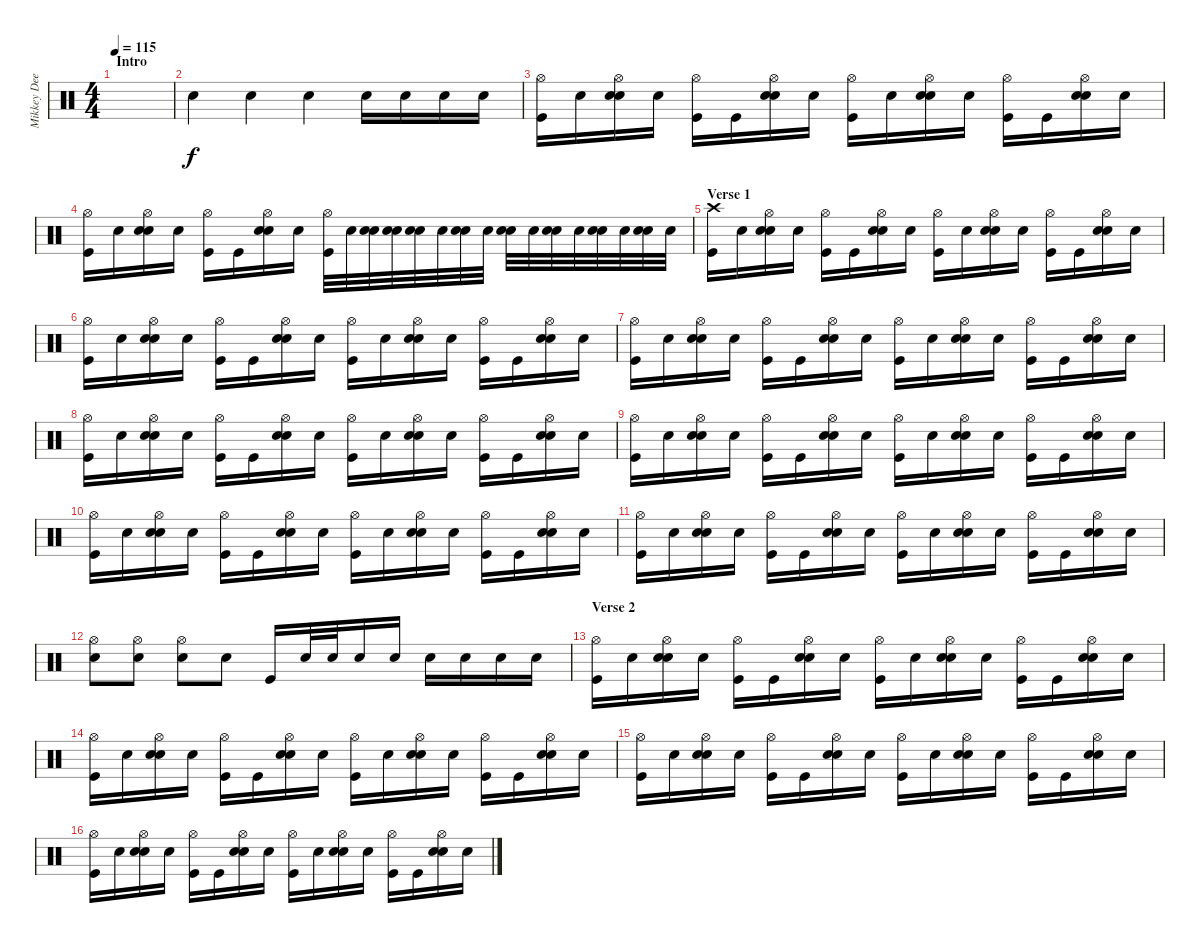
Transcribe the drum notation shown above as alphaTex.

\track ("Mikkey Dee" "Mikkey Dee") {instrument percussion}
\staff {score}
\articulation defaults
\ts (4 4)
\section ("" "Intro")
\tempo 115
\clef neutral
\ks c
|
"Snare (hit)".4 "Snare (hit)".4 "Snare (hit)".4 "Electric Snare (hit)".16 "Electric Snare (hit)".16 "Electric Snare (hit)".16 "Electric Snare (hit)".16 |
("Hi-Hat (open)" "Kick (hit)").16 "Snare (hit)".16 ("Hi-Hat (open)" "Electric Snare (hit)" "Snare (hit)").16 "Snare (hit)".16 ("Hi-Hat (open)" "Kick (hit)").16 "Kick (hit)".16 ("Hi-Hat (open)" "Electric Snare (hit)" "Snare (hit)").16 "Snare (hit)".16 ("Hi-Hat (open)" "Kick (hit)").16 "Snare (hit)".16 ("Hi-Hat (open)" "Electric Snare (hit)" "Snare (hit)").16 "Snare (hit)".16 ("Hi-Hat (open)" "Kick (hit)").16 "Kick (hit)".16 ("Hi-Hat (open)" "Electric Snare (hit)" "Snare (hit)").16 "Snare (hit)".16 |
("Hi-Hat (open)" "Kick (hit)").16 "Snare (hit)".16 ("Hi-Hat (open)" "Electric Snare (hit)" "Snare (hit)").16 "Snare (hit)".16 ("Hi-Hat (open)" "Kick (hit)").16 "Kick (hit)".16 ("Hi-Hat (open)" "Electric Snare (hit)" "Snare (hit)").16 "Snare (hit)".16 ("Hi-Hat (open)" "Kick (hit)").32 "Snare (hit)".32 ("Electric Snare (hit)" "Snare (hit)").32 ("Electric Snare (hit)" "Snare (hit)").32 ("Electric Snare (hit)" "Snare (hit)").32 "Snare (hit)".32 ("Electric Snare (hit)" "Snare (hit)").32 "Snare (hit)".32 ("Electric Snare (hit)" "Snare (hit)").32 "Snare (hit)".32 ("Electric Snare (hit)" "Snare (hit)").32 "Snare (hit)".32 ("Electric Snare (hit)" "Snare (hit)").32 "Snare (hit)".32 ("Electric Snare (hit)" "Snare (hit)").32 "Snare (hit)".32 |
\section ("" "Verse 1")
("Crash high (hit)" "Kick (hit)").16 "Snare (hit)".16 ("Hi-Hat (open)" "Electric Snare (hit)" "Snare (hit)").16 "Snare (hit)".16 ("Hi-Hat (open)" "Kick (hit)").16 "Kick (hit)".16 ("Hi-Hat (open)" "Electric Snare (hit)" "Snare (hit)").16 "Snare (hit)".16 ("Hi-Hat (open)" "Kick (hit)").16 "Snare (hit)".16 ("Hi-Hat (open)" "Electric Snare (hit)" "Snare (hit)").16 "Snare (hit)".16 ("Hi-Hat (open)" "Kick (hit)").16 "Kick (hit)".16 ("Hi-Hat (open)" "Electric Snare (hit)" "Snare (hit)").16 "Snare (hit)".16 |
("Hi-Hat (open)" "Kick (hit)").16 "Snare (hit)".16 ("Hi-Hat (open)" "Electric Snare (hit)" "Snare (hit)").16 "Snare (hit)".16 ("Hi-Hat (open)" "Kick (hit)").16 "Kick (hit)".16 ("Hi-Hat (open)" "Electric Snare (hit)" "Snare (hit)").16 "Snare (hit)".16 ("Hi-Hat (open)" "Kick (hit)").16 "Snare (hit)".16 ("Hi-Hat (open)" "Electric Snare (hit)" "Snare (hit)").16 "Snare (hit)".16 ("Hi-Hat (open)" "Kick (hit)").16 "Kick (hit)".16 ("Hi-Hat (open)" "Electric Snare (hit)" "Snare (hit)").16 "Snare (hit)".16 |
("Hi-Hat (open)" "Kick (hit)").16 "Snare (hit)".16 ("Hi-Hat (open)" "Electric Snare (hit)" "Snare (hit)").16 "Snare (hit)".16 ("Hi-Hat (open)" "Kick (hit)").16 "Kick (hit)".16 ("Hi-Hat (open)" "Electric Snare (hit)" "Snare (hit)").16 "Snare (hit)".16 ("Hi-Hat (open)" "Kick (hit)").16 "Snare (hit)".16 ("Hi-Hat (open)" "Electric Snare (hit)" "Snare (hit)").16 "Snare (hit)".16 ("Hi-Hat (open)" "Kick (hit)").16 "Kick (hit)".16 ("Hi-Hat (open)" "Electric Snare (hit)" "Snare (hit)").16 "Snare (hit)".16 |
("Hi-Hat (open)" "Kick (hit)").16 "Snare (hit)".16 ("Hi-Hat (open)" "Electric Snare (hit)" "Snare (hit)").16 "Snare (hit)".16 ("Hi-Hat (open)" "Kick (hit)").16 "Kick (hit)".16 ("Hi-Hat (open)" "Electric Snare (hit)" "Snare (hit)").16 "Snare (hit)".16 ("Hi-Hat (open)" "Kick (hit)").16 "Snare (hit)".16 ("Hi-Hat (open)" "Electric Snare (hit)" "Snare (hit)").16 "Snare (hit)".16 ("Hi-Hat (open)" "Kick (hit)").16 "Kick (hit)".16 ("Hi-Hat (open)" "Electric Snare (hit)" "Snare (hit)").16 "Snare (hit)".16 |
("Hi-Hat (open)" "Kick (hit)").16 "Snare (hit)".16 ("Hi-Hat (open)" "Electric Snare (hit)" "Snare (hit)").16 "Snare (hit)".16 ("Hi-Hat (open)" "Kick (hit)").16 "Kick (hit)".16 ("Hi-Hat (open)" "Electric Snare (hit)" "Snare (hit)").16 "Snare (hit)".16 ("Hi-Hat (open)" "Kick (hit)").16 "Snare (hit)".16 ("Hi-Hat (open)" "Electric Snare (hit)" "Snare (hit)").16 "Snare (hit)".16 ("Hi-Hat (open)" "Kick (hit)").16 "Kick (hit)".16 ("Hi-Hat (open)" "Electric Snare (hit)" "Snare (hit)").16 "Snare (hit)".16 |
("Hi-Hat (open)" "Kick (hit)").16 "Snare (hit)".16 ("Hi-Hat (open)" "Electric Snare (hit)" "Snare (hit)").16 "Snare (hit)".16 ("Hi-Hat (open)" "Kick (hit)").16 "Kick (hit)".16 ("Hi-Hat (open)" "Electric Snare (hit)" "Snare (hit)").16 "Snare (hit)".16 ("Hi-Hat (open)" "Kick (hit)").16 "Snare (hit)".16 ("Hi-Hat (open)" "Electric Snare (hit)" "Snare (hit)").16 "Snare (hit)".16 ("Hi-Hat (open)" "Kick (hit)").16 "Kick (hit)".16 ("Hi-Hat (open)" "Electric Snare (hit)" "Snare (hit)").16 "Snare (hit)".16 |
("Hi-Hat (open)" "Kick (hit)").16 "Snare (hit)".16 ("Hi-Hat (open)" "Electric Snare (hit)" "Snare (hit)").16 "Snare (hit)".16 ("Hi-Hat (open)" "Kick (hit)").16 "Kick (hit)".16 ("Hi-Hat (open)" "Electric Snare (hit)" "Snare (hit)").16 "Snare (hit)".16 ("Hi-Hat (open)" "Kick (hit)").16 "Snare (hit)".16 ("Hi-Hat (open)" "Electric Snare (hit)" "Snare (hit)").16 "Snare (hit)".16 ("Hi-Hat (open)" "Kick (hit)").16 "Kick (hit)".16 ("Hi-Hat (open)" "Electric Snare (hit)" "Snare (hit)").16 "Snare (hit)".16 |
("Hi-Hat (open)" "Electric Snare (hit)").8 ("Hi-Hat (open)" "Electric Snare (hit)").8 ("Hi-Hat (open)" "Electric Snare (hit)").8 "Snare (hit)".8 "Kick (hit)".16 "Electric Snare (hit)".32 "Electric Snare (hit)".32 "Electric Snare (hit)".16 "Electric Snare (hit)".16 "Electric Snare (hit)".16 "Electric Snare (hit)".16 "Electric Snare (hit)".16 "Electric Snare (hit)".16 |
\section ("" "Verse 2")
("Hi-Hat (open)" "Kick (hit)").16 "Snare (hit)".16 ("Hi-Hat (open)" "Electric Snare (hit)" "Snare (hit)").16 "Snare (hit)".16 ("Hi-Hat (open)" "Kick (hit)").16 "Kick (hit)".16 ("Hi-Hat (open)" "Electric Snare (hit)" "Snare (hit)").16 "Snare (hit)".16 ("Hi-Hat (open)" "Kick (hit)").16 "Snare (hit)".16 ("Hi-Hat (open)" "Electric Snare (hit)" "Snare (hit)").16 "Snare (hit)".16 ("Hi-Hat (open)" "Kick (hit)").16 "Kick (hit)".16 ("Hi-Hat (open)" "Electric Snare (hit)" "Snare (hit)").16 "Snare (hit)".16 |
("Hi-Hat (open)" "Kick (hit)").16 "Snare (hit)".16 ("Hi-Hat (open)" "Electric Snare (hit)" "Snare (hit)").16 "Snare (hit)".16 ("Hi-Hat (open)" "Kick (hit)").16 "Kick (hit)".16 ("Hi-Hat (open)" "Electric Snare (hit)" "Snare (hit)").16 "Snare (hit)".16 ("Hi-Hat (open)" "Kick (hit)").16 "Snare (hit)".16 ("Hi-Hat (open)" "Electric Snare (hit)" "Snare (hit)").16 "Snare (hit)".16 ("Hi-Hat (open)" "Kick (hit)").16 "Kick (hit)".16 ("Hi-Hat (open)" "Electric Snare (hit)" "Snare (hit)").16 "Snare (hit)".16 |
("Hi-Hat (open)" "Kick (hit)").16 "Snare (hit)".16 ("Hi-Hat (open)" "Electric Snare (hit)" "Snare (hit)").16 "Snare (hit)".16 ("Hi-Hat (open)" "Kick (hit)").16 "Kick (hit)".16 ("Hi-Hat (open)" "Electric Snare (hit)" "Snare (hit)").16 "Snare (hit)".16 ("Hi-Hat (open)" "Kick (hit)").16 "Snare (hit)".16 ("Hi-Hat (open)" "Electric Snare (hit)" "Snare (hit)").16 "Snare (hit)".16 ("Hi-Hat (open)" "Kick (hit)").16 "Kick (hit)".16 ("Hi-Hat (open)" "Electric Snare (hit)" "Snare (hit)").16 "Snare (hit)".16 |
("Hi-Hat (open)" "Kick (hit)").16 "Snare (hit)".16 ("Hi-Hat (open)" "Electric Snare (hit)" "Snare (hit)").16 "Snare (hit)".16 ("Hi-Hat (open)" "Kick (hit)").16 "Kick (hit)".16 ("Hi-Hat (open)" "Electric Snare (hit)" "Snare (hit)").16 "Snare (hit)".16 ("Hi-Hat (open)" "Kick (hit)").16 "Snare (hit)".16 ("Hi-Hat (open)" "Electric Snare (hit)" "Snare (hit)").16 "Snare (hit)".16 ("Hi-Hat (open)" "Kick (hit)").16 "Kick (hit)".16 ("Hi-Hat (open)" "Electric Snare (hit)" "Snare (hit)").16 "Snare (hit)".16
